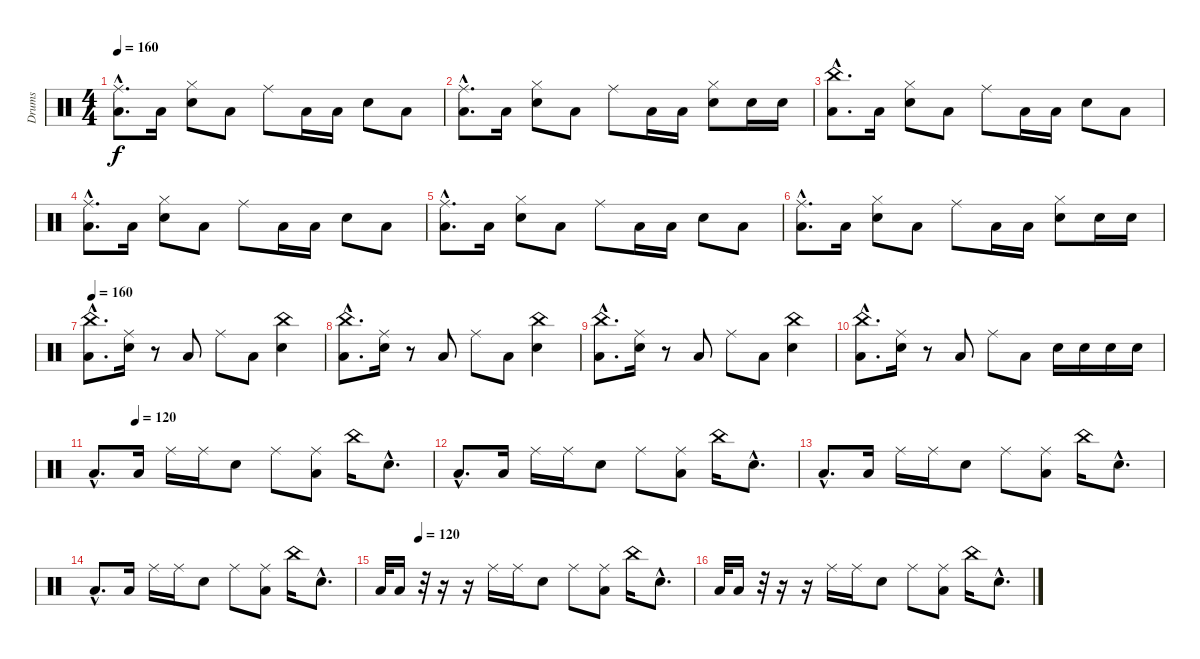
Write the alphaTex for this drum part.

\track ("Drums" "Drums") {instrument percussion}
\staff {score}
\articulation defaults
\ts (4 4)
\tempo 160
\clef neutral
\ks aminor
("Ride (middle)"{hac} "Low Floor Tom (hit)"{hac}).8{d dy f} "Low Floor Tom (hit)".16 ("Hi-Hat (closed)" "Electric Snare (hit)").8 "Low Floor Tom (hit)".8 "Ride (middle)".8 "Low Floor Tom (hit)".16 "Low Floor Tom (hit)".16 "Electric Snare (hit)".8 "Low Floor Tom (hit)".8 |
("Ride (middle)"{hac} "Low Floor Tom (hit)"{hac}).8{d} "Low Floor Tom (hit)".16 ("Hi-Hat (closed)" "Electric Snare (hit)").8 "Low Floor Tom (hit)".8 "Ride (middle)".8 "Low Floor Tom (hit)".16 "Low Floor Tom (hit)".16 ("Hi-Hat (closed)" "Electric Snare (hit)").8 "Electric Snare (hit)".16 "Electric Snare (hit)".16 |
("China (hit)"{hac} "Low Floor Tom (hit)"{hac}).8{d} "Low Floor Tom (hit)".16 ("Hi-Hat (closed)" "Electric Snare (hit)").8 "Low Floor Tom (hit)".8 "Ride (middle)".8 "Low Floor Tom (hit)".16 "Low Floor Tom (hit)".16 "Electric Snare (hit)".8 "Low Floor Tom (hit)".8 |
("Ride (middle)"{hac} "Low Floor Tom (hit)"{hac}).8{d} "Low Floor Tom (hit)".16 ("Hi-Hat (closed)" "Electric Snare (hit)").8 "Low Floor Tom (hit)".8 "Ride (middle)".8 "Low Floor Tom (hit)".16 "Low Floor Tom (hit)".16 "Electric Snare (hit)".8 "Low Floor Tom (hit)".8 |
("Ride (middle)"{hac} "Low Floor Tom (hit)"{hac}).8{d} "Low Floor Tom (hit)".16 ("Hi-Hat (closed)" "Electric Snare (hit)").8 "Low Floor Tom (hit)".8 "Ride (middle)".8 "Low Floor Tom (hit)".16 "Low Floor Tom (hit)".16 "Electric Snare (hit)".8 "Low Floor Tom (hit)".8 |
("Ride (middle)"{hac} "Low Floor Tom (hit)"{hac}).8{d} "Low Floor Tom (hit)".16 ("Hi-Hat (closed)" "Electric Snare (hit)").8 "Low Floor Tom (hit)".8 "Ride (middle)".8 "Low Floor Tom (hit)".16 "Low Floor Tom (hit)".16 ("Hi-Hat (closed)" "Electric Snare (hit)").8 "Electric Snare (hit)".16 "Electric Snare (hit)".16 |
\tempo 160
("China (hit)"{hac} "Low Floor Tom (hit)"{hac}).8{d} ("Ride (middle)" "Electric Snare (hit)").16 r.8 "Low Floor Tom (hit)".8 "Ride (middle)".8 "Low Floor Tom (hit)".8 ("China (hit)" "Electric Snare (hit)").4 |
("China (hit)"{hac} "Low Floor Tom (hit)"{hac}).8{d} ("Ride (middle)" "Electric Snare (hit)").16 r.8 "Low Floor Tom (hit)".8 "Ride (middle)".8 "Low Floor Tom (hit)".8 ("China (hit)" "Electric Snare (hit)").4 |
("China (hit)"{hac} "Low Floor Tom (hit)"{hac}).8{d} ("Ride (middle)" "Electric Snare (hit)").16 r.8 "Low Floor Tom (hit)".8 "Ride (middle)".8 "Low Floor Tom (hit)".8 ("China (hit)" "Electric Snare (hit)").4 |
("China (hit)"{hac} "Low Floor Tom (hit)"{hac}).8{d} ("Ride (middle)" "Electric Snare (hit)").16 r.8 "Low Floor Tom (hit)".8 "Ride (middle)".8 "Low Floor Tom (hit)".8 "Electric Snare (hit)".16 "Electric Snare (hit)".16 "Electric Snare (hit)".16 "Electric Snare (hit)".16 |
\tempo (120 0.125)
"Low Floor Tom (hit)"{hac}.8{d} "Low Floor Tom (hit)".16 "Ride (middle)".16 "Ride (middle)".16 "Electric Snare (hit)".8 "Ride (middle)".8 ("Ride (middle)" "Low Floor Tom (hit)").8 "China (hit)".16 "Electric Snare (hit)"{hac}.8{d} |
"Low Floor Tom (hit)"{hac}.8{d} "Low Floor Tom (hit)".16 "Ride (middle)".16 "Ride (middle)".16 "Electric Snare (hit)".8 "Ride (middle)".8 ("Ride (middle)" "Low Floor Tom (hit)").8 "China (hit)".16 "Electric Snare (hit)"{hac}.8{d} |
"Low Floor Tom (hit)"{hac}.8{d} "Low Floor Tom (hit)".16 "Ride (middle)".16 "Ride (middle)".16 "Electric Snare (hit)".8 "Ride (middle)".8 ("Ride (middle)" "Low Floor Tom (hit)").8 "China (hit)".16 "Electric Snare (hit)"{hac}.8{d} |
"Low Floor Tom (hit)"{hac}.8{d} "Low Floor Tom (hit)".16 "Ride (middle)".16 "Ride (middle)".16 "Electric Snare (hit)".8 "Ride (middle)".8 ("Ride (middle)" "Low Floor Tom (hit)").8 "China (hit)".16 "Electric Snare (hit)"{hac}.8{d} |
\tempo (120 0.125)
"Low Floor Tom (hit)".32 "Low Floor Tom (hit)".16 r.32 r.16 r.16 "Ride (middle)".16 "Ride (middle)".16 "Electric Snare (hit)".8 "Ride (middle)".8 ("Ride (middle)" "Low Floor Tom (hit)").8 "China (hit)".16 "Electric Snare (hit)"{hac}.8{d} |
"Low Floor Tom (hit)".32 "Low Floor Tom (hit)".16 r.32 r.16 r.16 "Ride (middle)".16 "Ride (middle)".16 "Electric Snare (hit)".8 "Ride (middle)".8 ("Ride (middle)" "Low Floor Tom (hit)").8 "China (hit)".16 "Electric Snare (hit)"{hac}.8{d}
